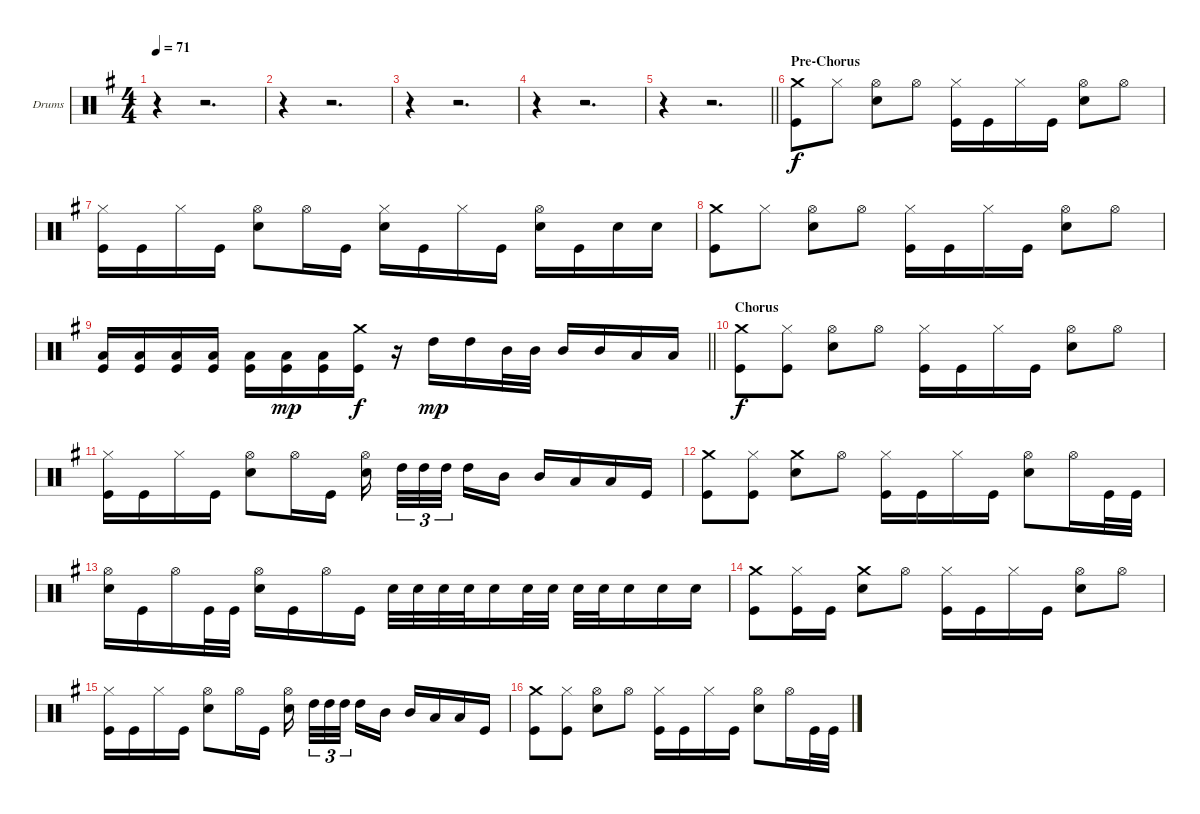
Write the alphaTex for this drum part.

\bracketExtendMode groupsimilarinstruments
\firstSystemTrackNameOrientation horizontal
\otherSystemsTrackNameOrientation horizontal
\track ("Барабаны" "Drums") {instrument percussion}
\staff {score}
\articulation defaults
\ts (4 4)
\tempo 71
\clef neutral
\ks eminor
r.4{dy f} r.2{d} |
r.4 r.2{d} |
r.4 r.2{d} |
r.4 r.2{d} |
\barLineRight lightlight
r.4 r.2{d} |
\section ("" "Pre-Chorus")
("Kick (hit)" "Crash medium (hit)").8 "Hi-Hat (closed)".8 ("Snare (hit) 2" "Hi-Hat (open)").8 "Hi-Hat (open)".8 ("Kick (hit)" "Hi-Hat (closed)").16 "Kick (hit)".16 "Hi-Hat (closed)".16 "Kick (hit)".16 ("Snare (hit) 2" "Hi-Hat (open)").8 "Hi-Hat (open)".8 |
("Kick (hit)" "Hi-Hat (closed)").16 "Kick (hit)".16 "Hi-Hat (closed)".16 "Kick (hit)".16 ("Snare (hit) 2" "Hi-Hat (open)").8 "Hi-Hat (open)".16 "Kick (hit)".16 ("Snare (hit) 2" "Hi-Hat (closed)").16 "Kick (hit)".16 "Hi-Hat (closed)".16 "Kick (hit)".16 ("Snare (hit) 2" "Hi-Hat (open)").16 "Kick (hit)".16 "Snare (hit) 2".16 "Snare (hit) 2".16 |
("Kick (hit)" "Crash medium (hit)").8 "Hi-Hat (closed)".8 ("Snare (hit) 2" "Hi-Hat (open)").8 "Hi-Hat (open)".8 ("Kick (hit)" "Hi-Hat (closed)").16 "Kick (hit)".16 "Hi-Hat (closed)".16 "Kick (hit)".16 ("Snare (hit) 2" "Hi-Hat (open)").8 "Hi-Hat (open)".8 |
\barLineRight lightlight
("Kick (hit)" "Low Tom (hit)").16 ("Kick (hit)" "Low Tom (hit)").16 ("Kick (hit)" "Low Tom (hit)").16 ("Kick (hit)" "Low Tom (hit)").16 ("Low Tom (hit)" "Kick (hit)").16 ("Low Tom (hit)" "Kick (hit)").16{dy mp} ("Low Tom (hit)" "Kick (hit)").16 ("Crash medium (hit)" "Kick (hit)").16{dy f} r.16 "High Tom (hit)".16{dy mp} "High Tom (hit)".16 "Mid Tom (hit)".32 "Mid Tom (hit)".32 "Mid Tom (hit)".16 "Mid Tom (hit)".16 "Low Tom (hit)".16 "Low Tom (hit)".16 |
\section ("" "Chorus")
("Kick (hit)" "Crash medium (hit)").8{dy f} ("Hi-Hat (closed)" "Kick (hit)").8 ("Hi-Hat (open)" "Snare (hit) 2").8 "Hi-Hat (open)".8 ("Kick (hit)" "Hi-Hat (closed)").16 "Kick (hit)".16 "Hi-Hat (closed)".16 "Kick (hit)".16 ("Snare (hit) 2" "Hi-Hat (open)").8 "Hi-Hat (open)".8 |
("Kick (hit)" "Hi-Hat (closed)").16 "Kick (hit)".16 "Hi-Hat (closed)".16 "Kick (hit)".16 ("Hi-Hat (open)" "Snare (hit) 2").8 "Hi-Hat (open)".16 "Kick (hit)".16 ("Snare (hit) 2" "Hi-Hat (open)").16 "High Tom (hit)".32{tu (3 2)} "High Tom (hit)".32{tu (3 2)} "High Tom (hit)".32{tu (3 2)} "High Tom (hit)".16 "Mid Tom (hit)".16 "Mid Tom (hit)".16 "Low Tom (hit)".16 "Low Tom (hit)".16 "Kick (hit)".16 |
("Kick (hit)" "Crash medium (hit)").8 ("Hi-Hat (closed)" "Kick (hit)").8 ("Crash medium (hit)" "Snare (hit) 2").8 "Hi-Hat (open)".8 ("Kick (hit)" "Hi-Hat (closed)").16 "Kick (hit)".16 "Hi-Hat (closed)".16 "Kick (hit)".16 ("Snare (hit) 2" "Hi-Hat (open)").8 "Hi-Hat (open)".16 "Kick (hit)".32 "Kick (hit)".32 |
("Snare (hit) 2" "Hi-Hat (open)").16 "Kick (hit)".16 "Hi-Hat (open)".16 "Kick (hit)".32 "Kick (hit)".32 ("Snare (hit) 2" "Hi-Hat (open)").16 "Kick (hit)".16 "Hi-Hat (open)".16 "Kick (hit)".16 "Snare (hit) 2".32 "Snare (hit) 2".32 "Snare (hit) 2".32 "Snare (hit) 2".32 "Snare (hit) 2".16 "Snare (hit) 2".32 "Snare (hit) 2".32 "Snare (hit) 2".32 "Snare (hit) 2".32 "Snare (hit) 2".16 "Snare (hit) 2".16 "Snare (hit) 2".16 |
("Kick (hit)" "Crash medium (hit)").8 ("Hi-Hat (closed)" "Kick (hit)").16 "Kick (hit)".16 ("Crash medium (hit)" "Snare (hit) 2").8 "Hi-Hat (open)".8 ("Kick (hit)" "Hi-Hat (closed)").16 "Kick (hit)".16 "Hi-Hat (closed)".16 "Kick (hit)".16 ("Snare (hit) 2" "Hi-Hat (open)").8 "Hi-Hat (open)".8 |
("Kick (hit)" "Hi-Hat (closed)").16 "Kick (hit)".16 "Hi-Hat (closed)".16 "Kick (hit)".16 ("Hi-Hat (open)" "Snare (hit) 2").8 "Hi-Hat (open)".16 "Kick (hit)".16 ("Snare (hit) 2" "Hi-Hat (open)").16 "High Tom (hit)".32{tu (3 2)} "High Tom (hit)".32{tu (3 2)} "High Tom (hit)".32{tu (3 2)} "High Tom (hit)".16 "Mid Tom (hit)".16 "Mid Tom (hit)".16 "Low Tom (hit)".16 "Low Tom (hit)".16 "Kick (hit)".16 |
("Kick (hit)" "Crash medium (hit)").8 ("Hi-Hat (closed)" "Kick (hit)").8 ("Hi-Hat (open)" "Snare (hit) 2").8 "Hi-Hat (open)".8 ("Kick (hit)" "Hi-Hat (closed)").16 "Kick (hit)".16 "Hi-Hat (closed)".16 "Kick (hit)".16 ("Snare (hit) 2" "Hi-Hat (open)").8 "Hi-Hat (open)".16 "Kick (hit)".32 "Kick (hit)".32
